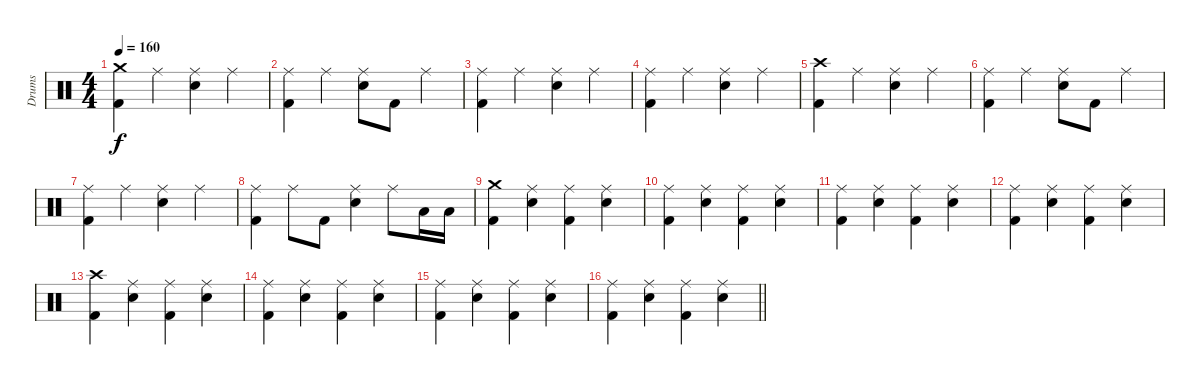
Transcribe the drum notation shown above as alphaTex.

\track ("Drums" "Drums") {instrument percussion}
\staff {score}
\articulation defaults
\ts (4 4)
\tempo 160
\clef neutral
\ks aminor
("Crash medium (hit)" "Kick (hit) 2").4{dy f} "Ride (middle)".4 ("Ride (middle)" "Electric Snare (hit)").4 "Ride (middle)".4 |
("Ride (middle)" "Kick (hit) 2").4 "Ride (middle)".4 ("Ride (middle)" "Electric Snare (hit)").8 "Kick (hit) 2".8 "Ride (middle)".4 |
("Ride (middle)" "Kick (hit) 2").4 "Ride (middle)".4 ("Ride (middle)" "Electric Snare (hit)").4 "Ride (middle)".4 |
("Ride (middle)" "Kick (hit) 2").4 "Ride (middle)".4 ("Ride (middle)" "Electric Snare (hit)").4 "Ride (middle)".4 |
("Crash high (hit)" "Kick (hit) 2").4 "Ride (middle)".4 ("Ride (middle)" "Electric Snare (hit)").4 "Ride (middle)".4 |
("Ride (middle)" "Kick (hit) 2").4 "Ride (middle)".4 ("Ride (middle)" "Electric Snare (hit)").8 "Kick (hit) 2".8 "Ride (middle)".4 |
("Ride (middle)" "Kick (hit) 2").4 "Ride (middle)".4 ("Ride (middle)" "Electric Snare (hit)").4 "Ride (middle)".4 |
("Ride (middle)" "Kick (hit) 2").4 "Ride (middle)".8 "Kick (hit) 2".8 ("Ride (middle)" "Electric Snare (hit)").4 "Ride (middle)".8 "Low Tom (hit)".16 "Low Tom (hit)".16 |
("Crash medium (hit)" "Kick (hit) 2").4 ("Ride (middle)" "Electric Snare (hit)").4 ("Ride (middle)" "Kick (hit) 2").4 ("Ride (middle)" "Electric Snare (hit)").4 |
("Ride (middle)" "Kick (hit) 2").4 ("Ride (middle)" "Electric Snare (hit)").4 ("Ride (middle)" "Kick (hit) 2").4 ("Ride (middle)" "Electric Snare (hit)").4 |
("Ride (middle)" "Kick (hit) 2").4 ("Ride (middle)" "Electric Snare (hit)").4 ("Ride (middle)" "Kick (hit) 2").4 ("Ride (middle)" "Electric Snare (hit)").4 |
("Ride (middle)" "Kick (hit) 2").4 ("Ride (middle)" "Electric Snare (hit)").4 ("Ride (middle)" "Kick (hit) 2").4 ("Ride (middle)" "Electric Snare (hit)").4 |
("Crash high (hit)" "Kick (hit) 2").4 ("Ride (middle)" "Electric Snare (hit)").4 ("Ride (middle)" "Kick (hit) 2").4 ("Ride (middle)" "Electric Snare (hit)").4 |
("Ride (middle)" "Kick (hit) 2").4 ("Ride (middle)" "Electric Snare (hit)").4 ("Ride (middle)" "Kick (hit) 2").4 ("Ride (middle)" "Electric Snare (hit)").4 |
("Ride (middle)" "Kick (hit) 2").4 ("Ride (middle)" "Electric Snare (hit)").4 ("Ride (middle)" "Kick (hit) 2").4 ("Ride (middle)" "Electric Snare (hit)").4 |
\barLineRight lightlight
("Ride (middle)" "Kick (hit) 2").4 ("Ride (middle)" "Electric Snare (hit)").4 ("Ride (middle)" "Kick (hit) 2").4 ("Ride (middle)" "Electric Snare (hit)").4
